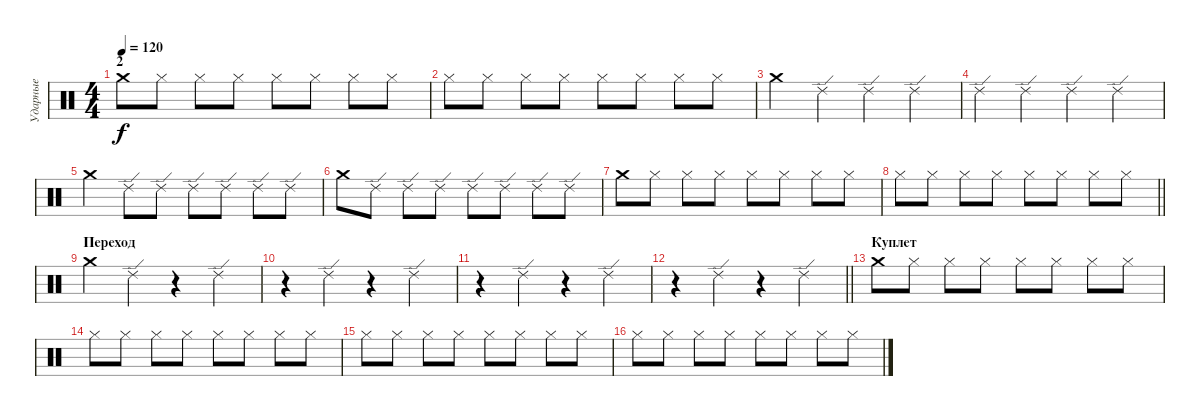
\track ("Ударные" "Ударные") {instrument percussion}
\staff {score}
\articulation defaults
\ts (4 4)
\section ("" "2")
\tempo 120
\clef neutral
\ks c "Crash medium (hit)".8{dy f} "Hi-Hat (closed)".8 "Hi-Hat (closed)".8 "Hi-Hat (closed)".8 "Hi-Hat (closed)".8 "Hi-Hat (closed)".8 "Hi-Hat (closed)".8 "Hi-Hat (closed)".8
|
"Hi-Hat (closed)".8 "Hi-Hat (closed)".8 "Hi-Hat (closed)".8 "Hi-Hat (closed)".8 "Hi-Hat (closed)".8 "Hi-Hat (closed)".8 "Hi-Hat (closed)".8 "Hi-Hat (closed)".8 |
"Crash medium (hit)".4 "Ride (edge) 2".4 "Ride (edge) 2".4 "Ride (edge) 2".4 |
"Ride (edge) 2".4 "Ride (edge) 2".4 "Ride (edge) 2".4 "Ride (edge) 2".4 |
"Crash medium (hit)".4 "Ride (edge) 2".8 "Ride (edge) 2".8 "Ride (edge) 2".8 "Ride (edge) 2".8 "Ride (edge) 2".8 "Ride (edge) 2".8 |
"Crash medium (hit)".8 "Ride (edge) 2".8 "Ride (edge) 2".8 "Ride (edge) 2".8 "Ride (edge) 2".8 "Ride (edge) 2".8 "Ride (edge) 2".8 "Ride (edge) 2".8 |
"Crash medium (hit)".8 "Hi-Hat (closed)".8 "Hi-Hat (closed)".8 "Hi-Hat (closed)".8 "Hi-Hat (closed)".8 "Hi-Hat (closed)".8 "Hi-Hat (closed)".8 "Hi-Hat (closed)".8 |
\barLineRight lightlight "Hi-Hat (closed)".8 "Hi-Hat (closed)".8 "Hi-Hat (closed)".8 "Hi-Hat (closed)".8 "Hi-Hat (closed)".8 "Hi-Hat (closed)".8 "Hi-Hat (closed)".8 "Hi-Hat (closed)".8
|
\section ("" "Переход")
"Crash medium (hit)".4 "Ride (edge) 2".4 r.4 "Ride (edge) 2".4 |
r.4 "Ride (edge) 2".4 r.4 "Ride (edge) 2".4 |
r.4 "Ride (edge) 2".4 r.4 "Ride (edge) 2".4 |
\barLineRight lightlight
r.4 "Ride (edge) 2".4 r.4 "Ride (edge) 2".4 |
\section ("" "Куплет")
"Crash medium (hit)".8 "Hi-Hat (closed)".8 "Hi-Hat (closed)".8 "Hi-Hat (closed)".8 "Hi-Hat (closed)".8 "Hi-Hat (closed)".8 "Hi-Hat (closed)".8 "Hi-Hat (closed)".8 |
"Hi-Hat (closed)".8 "Hi-Hat (closed)".8 "Hi-Hat (closed)".8 "Hi-Hat (closed)".8 "Hi-Hat (closed)".8 "Hi-Hat (closed)".8 "Hi-Hat (closed)".8 "Hi-Hat (closed)".8 |
"Hi-Hat (closed)".8 "Hi-Hat (closed)".8 "Hi-Hat (closed)".8 "Hi-Hat (closed)".8 "Hi-Hat (closed)".8 "Hi-Hat (closed)".8 "Hi-Hat (closed)".8 "Hi-Hat (closed)".8 |
"Hi-Hat (closed)".8 "Hi-Hat (closed)".8 "Hi-Hat (closed)".8 "Hi-Hat (closed)".8 "Hi-Hat (closed)".8 "Hi-Hat (closed)".8 "Hi-Hat (closed)".8 "Hi-Hat (closed)".8
